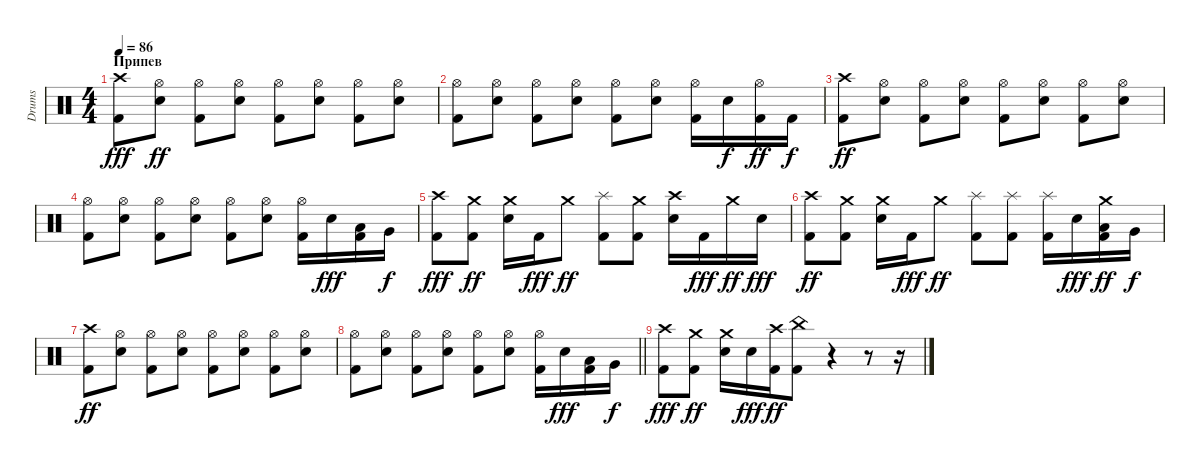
\track ("Drums" "Drums") {instrument percussion}
\staff {score}
\articulation defaults
\ts (4 4)
\section ("" "Припев")
\tempo 86
\clef neutral
\ks c
("Kick (hit) 2" "Crash high (hit)").8{dy fff} ("Electric Snare (hit)" "Hi-Hat (open)").8{dy ff} ("Kick (hit) 2" "Hi-Hat (open)").8 ("Electric Snare (hit)" "Hi-Hat (open)").8 ("Kick (hit) 2" "Hi-Hat (open)").8 ("Electric Snare (hit)" "Hi-Hat (open)").8 ("Kick (hit) 2" "Hi-Hat (open)").8 ("Electric Snare (hit)" "Hi-Hat (open)").8 |
("Kick (hit) 2" "Hi-Hat (open)").8 ("Electric Snare (hit)" "Hi-Hat (open)").8 ("Kick (hit) 2" "Hi-Hat (open)").8 ("Electric Snare (hit)" "Hi-Hat (open)").8 ("Kick (hit) 2" "Hi-Hat (open)").8 ("Electric Snare (hit)" "Hi-Hat (open)").8 ("Kick (hit) 2" "Hi-Hat (open)").16 "Electric Snare (hit)".16{dy f} ("Kick (hit) 2" "Hi-Hat (open)").16{dy ff} "Kick (hit) 2".16{dy f} |
("Kick (hit) 2" "Crash high (hit)").8{dy ff} ("Electric Snare (hit)" "Hi-Hat (open)").8 ("Kick (hit) 2" "Hi-Hat (open)").8 ("Electric Snare (hit)" "Hi-Hat (open)").8 ("Kick (hit) 2" "Hi-Hat (open)").8 ("Electric Snare (hit)" "Hi-Hat (open)").8 ("Kick (hit) 2" "Hi-Hat (open)").8 ("Electric Snare (hit)" "Hi-Hat (open)").8 |
("Kick (hit) 2" "Hi-Hat (open)").8 ("Electric Snare (hit)" "Hi-Hat (open)").8 ("Kick (hit) 2" "Hi-Hat (open)").8 ("Electric Snare (hit)" "Hi-Hat (open)").8 ("Kick (hit) 2" "Hi-Hat (open)").8 ("Electric Snare (hit)" "Hi-Hat (open)").8 ("Kick (hit) 2" "Hi-Hat (open)").16 "Electric Snare (hit)".16{dy fff} ("Kick (hit) 2" "Low Floor Tom (hit)").16 "Very Low Tom (hit)".16{dy f} |
("Kick (hit) 2" "Crash high (hit)").8{dy fff} ("Kick (hit) 2" "Crash medium (hit)").8{dy ff} ("Electric Snare (hit)" "Crash medium (hit)").16 "Kick (hit) 2".16{dy fff} "Crash medium (hit)".8{dy ff} ("Kick (hit) 2" "Splash (hit)").8 ("Kick (hit) 2" "Crash medium (hit)").8 ("Electric Snare (hit)" "Crash high (hit)").16 "Kick (hit) 2".16{dy fff} "Crash medium (hit)".16{dy ff} "Electric Snare (hit)".16{dy fff} |
("Kick (hit) 2" "Crash high (hit)").8{dy ff} ("Kick (hit) 2" "Crash medium (hit)").8 ("Electric Snare (hit)" "Crash medium (hit)").16 "Kick (hit) 2".16{dy fff} "Crash medium (hit)".8{dy ff} ("Kick (hit) 2" "Splash (hit)").8 ("Kick (hit) 2" "Splash (hit)").8 ("Kick (hit) 2" "Splash (hit)").16 "Electric Snare (hit)".16{dy fff} ("Kick (hit) 2" "Low Floor Tom (hit)" "Crash medium (hit)").16{dy ff} "Very Low Tom (hit)".16{dy f} |
("Kick (hit) 2" "Crash high (hit)").8{dy ff} ("Electric Snare (hit)" "Hi-Hat (open)").8 ("Kick (hit) 2" "Hi-Hat (open)").8 ("Electric Snare (hit)" "Hi-Hat (open)").8 ("Kick (hit) 2" "Hi-Hat (open)").8 ("Electric Snare (hit)" "Hi-Hat (open)").8 ("Kick (hit) 2" "Hi-Hat (open)").8 ("Electric Snare (hit)" "Hi-Hat (open)").8 |
\barLineRight lightlight
("Kick (hit) 2" "Hi-Hat (open)").8 ("Electric Snare (hit)" "Hi-Hat (open)").8 ("Kick (hit) 2" "Hi-Hat (open)").8 ("Electric Snare (hit)" "Hi-Hat (open)").8 ("Kick (hit) 2" "Hi-Hat (open)").8 ("Electric Snare (hit)" "Hi-Hat (open)").8 ("Kick (hit) 2" "Hi-Hat (open)").16 "Electric Snare (hit)".16{dy fff} ("Kick (hit) 2" "Low Floor Tom (hit)").16 "Very Low Tom (hit)".16{dy f} |
("Kick (hit) 2" "Crash high (hit)").8{dy fff} ("Kick (hit) 2" "Crash medium (hit)").8{dy ff} ("Electric Snare (hit)" "Crash medium (hit)").16 "Electric Snare (hit)".16{dy fff} ("Kick (hit) 2" "Crash high (hit)").16{dy ff} ("Kick (hit) 2" "China (hit)").8 r.4 r.8 r.16
